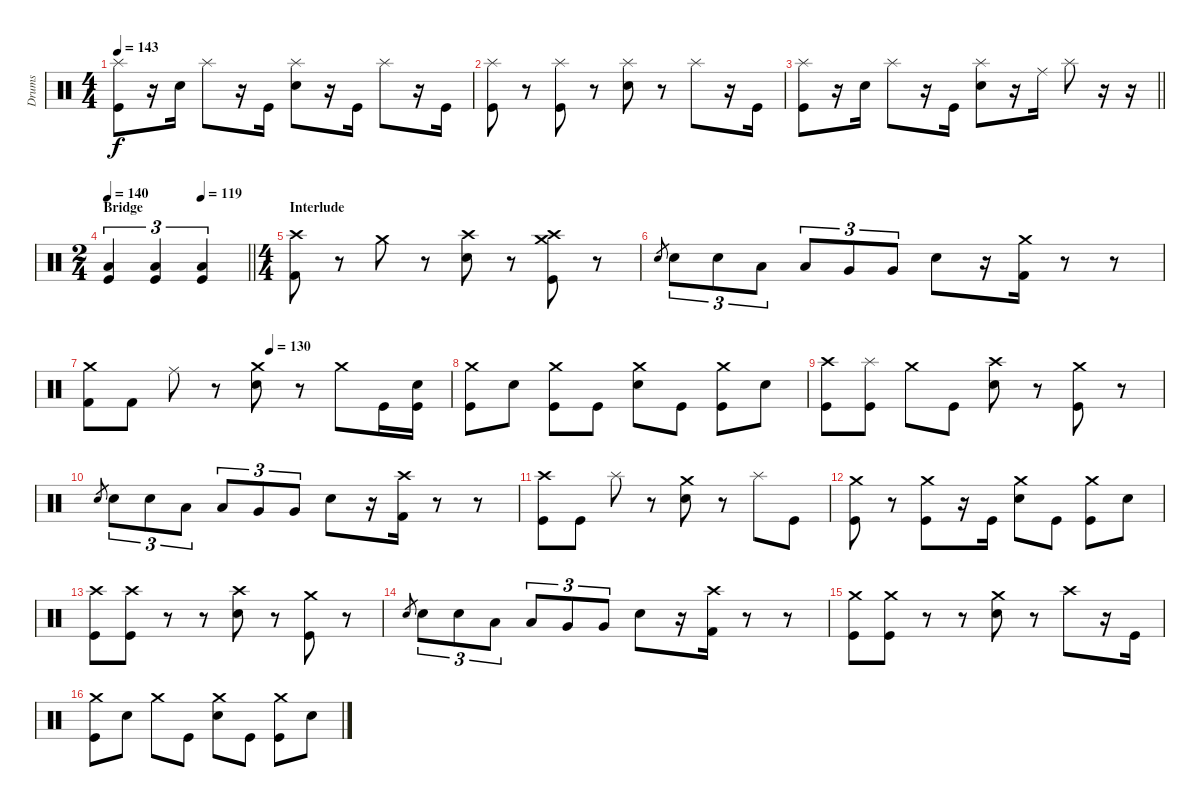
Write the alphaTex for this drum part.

\track ("Drums" "Drums") {instrument percussion}
\staff {score}
\articulation defaults
\ts (4 4)
\tempo 143
\clef neutral
\ks c
("Splash (hit)" "Kick (hit)").8{dy f} r.16 "Electric Snare (hit)".16 "Splash (hit)".8 r.16 "Kick (hit)".16 ("Splash (hit)" "Electric Snare (hit)").8 r.16 "Kick (hit)".16 "Splash (hit)".8 r.16 "Kick (hit)".16 |
("Splash (hit)" "Kick (hit)").8 r.8 ("Splash (hit)" "Kick (hit)").8 r.8 ("Splash (hit)" "Electric Snare (hit)").8 r.8 "Splash (hit)".8 r.16 "Kick (hit)".16 |
\barLineRight lightlight
("Splash (hit)" "Kick (hit)").8 r.16 "Electric Snare (hit)".16 "Splash (hit)".8 r.16 "Kick (hit)".16 ("Splash (hit)" "Electric Snare (hit)").8 r.16 "Ride (middle)".16 "Splash (hit)".8 r.16 r.16 |
\ts (2 4)
\section ("" "Bridge")
\tempo 140
\tempo (119 0.6666666666666666)
\barLineRight lightlight
("Low Tom (hit)" "Kick (hit)").4{tu (3 2)} ("Low Tom (hit)" "Kick (hit)").4{tu (3 2)} ("Low Tom (hit)" "Kick (hit)").4{tu (3 2)} |
\ts (4 4)
\section ("" "Interlude")
("Crash high (hit)" "Kick (hit) 2").8 r.8 "Crash medium (hit)".8 r.8 ("Crash high (hit)" "Electric Snare (hit)").8 r.8 ("Crash high (hit)" "Crash medium (hit)" "Kick (hit)").8 r.8 |
"Electric Snare (hit)".8{gr} "Electric Snare (hit)".8{tu (3 2)} "Electric Snare (hit)".8{tu (3 2)} "Low Tom (hit)".8{tu (3 2)} "Low Tom (hit)".8{tu (3 2)} "Very Low Tom (hit)".8{tu (3 2)} "Very Low Tom (hit)".8{tu (3 2)} "Electric Snare (hit)".8 r.16 ("Crash medium (hit)" "Kick (hit) 2").16 r.8 r.8 |
\tempo (130 0.5)
("Crash medium (hit)" "Kick (hit) 2").8 "Kick (hit) 2".8 "Ride (middle)".8 r.8 ("Crash medium (hit)" "Electric Snare (hit)").8 r.8 "Crash medium (hit)".8 "Kick (hit)".16 ("Electric Snare (hit)" "Kick (hit)").16 |
("Crash medium (hit)" "Kick (hit)").8 "Electric Snare (hit)".8 ("Crash medium (hit)" "Kick (hit)").8 "Kick (hit)".8 ("Crash medium (hit)" "Electric Snare (hit)").8 "Kick (hit)".8 ("Crash medium (hit)" "Kick (hit)").8 "Electric Snare (hit)".8 |
("Crash high (hit)" "Kick (hit)").8 ("Splash (hit)" "Kick (hit)").8 "Crash medium (hit)".8 "Kick (hit)".8 ("Crash high (hit)" "Electric Snare (hit)").8 r.8 ("Crash medium (hit)" "Kick (hit)").8 r.8 |
"Electric Snare (hit)".8{gr} "Electric Snare (hit)".8{tu (3 2)} "Electric Snare (hit)".8{tu (3 2)} "Low Tom (hit)".8{tu (3 2)} "Low Tom (hit)".8{tu (3 2)} "Very Low Tom (hit)".8{tu (3 2)} "Very Low Tom (hit)".8{tu (3 2)} "Electric Snare (hit)".8 r.16 ("Crash high (hit)" "Kick (hit) 2").16 r.8 r.8 |
("Crash high (hit)" "Kick (hit)").8 "Kick (hit)".8 "Splash (hit)".8 r.8 ("Crash medium (hit)" "Electric Snare (hit)").8 r.8 "Splash (hit)".8 "Kick (hit)".8 |
("Crash medium (hit)" "Kick (hit)").8 r.8 ("Crash medium (hit)" "Kick (hit)").8 r.16 "Kick (hit)".16 ("Crash medium (hit)" "Electric Snare (hit)").8 "Kick (hit)".8 ("Crash medium (hit)" "Kick (hit)").8 "Electric Snare (hit)".8 |
("Crash high (hit)" "Kick (hit)").8 ("Crash high (hit)" "Kick (hit)").8 r.8 r.8 ("Crash high (hit)" "Electric Snare (hit)").8 r.8 ("Crash medium (hit)" "Kick (hit)").8 r.8 |
"Electric Snare (hit)".8{gr} "Electric Snare (hit)".8{tu (3 2)} "Electric Snare (hit)".8{tu (3 2)} "Low Tom (hit)".8{tu (3 2)} "Low Tom (hit)".8{tu (3 2)} "Very Low Tom (hit)".8{tu (3 2)} "Very Low Tom (hit)".8{tu (3 2)} "Electric Snare (hit)".8 r.16 ("Crash high (hit)" "Kick (hit) 2").16 r.8 r.8 |
("Crash medium (hit)" "Kick (hit)").8 ("Crash medium (hit)" "Kick (hit)").8 r.8 r.8 ("Crash medium (hit)" "Electric Snare (hit)").8 r.8 "Crash high (hit)".8 r.16 "Kick (hit)".16 |
("Crash medium (hit)" "Kick (hit)").8 "Electric Snare (hit)".8 "Crash medium (hit)".8 "Kick (hit)".8 ("Crash medium (hit)" "Electric Snare (hit)").8 "Kick (hit)".8 ("Crash medium (hit)" "Kick (hit)").8 "Electric Snare (hit)".8
